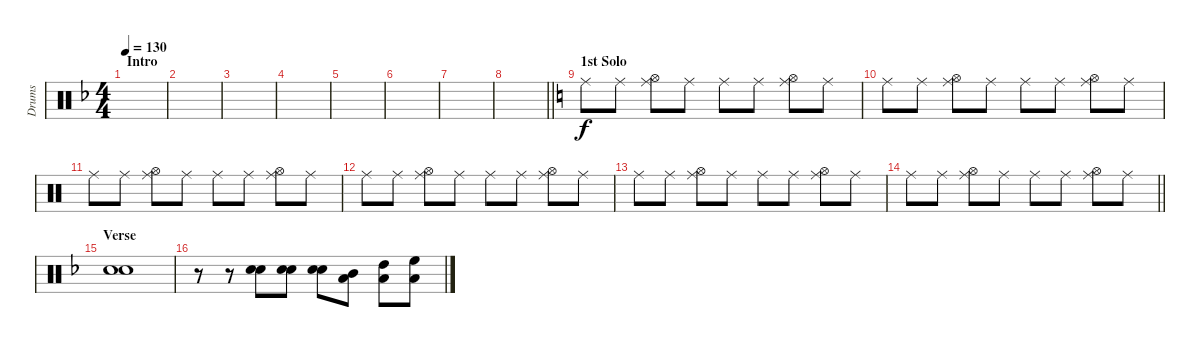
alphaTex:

\track ("Drums" "Drums") {instrument percussion}
\staff {score}
\articulation defaults
\ts (4 4)
\section ("" "Intro")
\tempo 130
\clef neutral
\ks dminor
|
|
|
|
|
|
|
\barLineRight lightlight
|
\section ("" "1st Solo")
\ks c "Ride (middle)".8 "Ride (middle)".8
("Ride (middle)" "Hi-Hat (open)").8 "Ride (middle)".8 "Ride (middle)".8 "Ride (middle)".8 ("Ride (middle)" "Hi-Hat (open)").8 "Ride (middle)".8 |
"Ride (middle)".8 "Ride (middle)".8 ("Ride (middle)" "Hi-Hat (open)").8 "Ride (middle)".8 "Ride (middle)".8 "Ride (middle)".8 ("Ride (middle)" "Hi-Hat (open)").8 "Ride (middle)".8 |
"Ride (middle)".8 "Ride (middle)".8 ("Ride (middle)" "Hi-Hat (open)").8 "Ride (middle)".8 "Ride (middle)".8 "Ride (middle)".8 ("Ride (middle)" "Hi-Hat (open)").8 "Ride (middle)".8 |
"Ride (middle)".8 "Ride (middle)".8 ("Ride (middle)" "Hi-Hat (open)").8 "Ride (middle)".8 "Ride (middle)".8 "Ride (middle)".8 ("Ride (middle)" "Hi-Hat (open)").8 "Ride (middle)".8 |
"Ride (middle)".8 "Ride (middle)".8 ("Ride (middle)" "Hi-Hat (open)").8 "Ride (middle)".8 "Ride (middle)".8 "Ride (middle)".8 ("Ride (middle)" "Hi-Hat (open)").8 "Ride (middle)".8 |
\barLineRight lightlight "Ride (middle)".8 "Ride (middle)".8
("Ride (middle)" "Hi-Hat (open)").8 "Ride (middle)".8 "Ride (middle)".8 "Ride (middle)".8 ("Ride (middle)" "Hi-Hat (open)").8 "Ride (middle)".8 |
\section ("" "Verse")
\ks dminor
("Snare (hit) 2" "Snare (hit) 2").1 |
r.8 r.8 ("Snare (hit) 2" "Snare (hit) 2").8 ("Snare (hit) 2" "Snare (hit) 2").8 ("Snare (hit) 2" "Snare (hit) 2").8 ("Mid Tom (hit)" "Low Tom (hit)").8 ("High Tom (hit)" "Low Tom (hit)").8 ("High Floor Tom (hit)" "Low Tom (hit)").8
